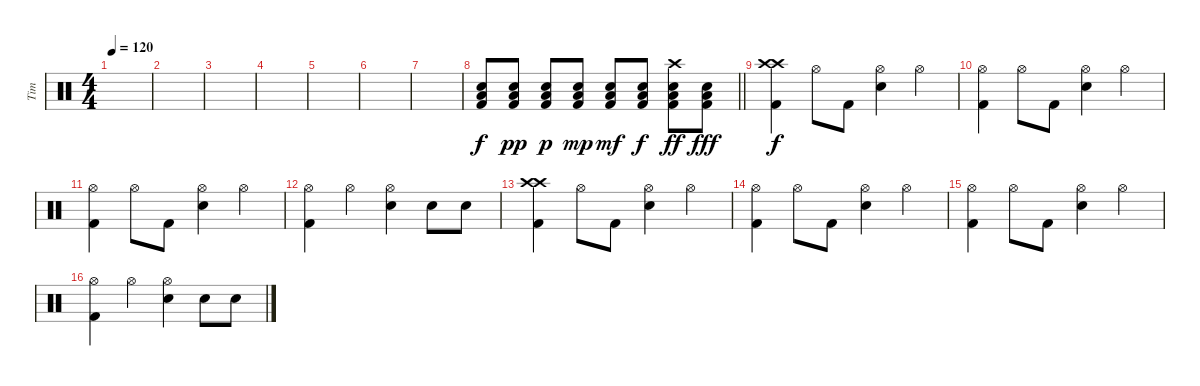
\track ("Tim" "Tim") {instrument percussion}
\staff {score}
\articulation defaults
\ts (4 4)
\tempo 120
\clef neutral
\ks c
|
|
|
|
|
|
|
\barLineRight lightlight
("Electric Snare (hit)" "Low Floor Tom (hit)" "Kick (hit) 2").8 ("Electric Snare (hit)" "Low Floor Tom (hit)" "Kick (hit) 2").8{dy pp} ("Electric Snare (hit)" "Low Floor Tom (hit)" "Kick (hit) 2").8{dy p} ("Electric Snare (hit)" "Low Floor Tom (hit)" "Kick (hit) 2").8{dy mp} ("Electric Snare (hit)" "Low Floor Tom (hit)" "Kick (hit) 2").8{dy mf} ("Electric Snare (hit)" "Low Floor Tom (hit)" "Kick (hit) 2").8{dy f} ("Crash high (hit)" "Electric Snare (hit)" "Low Floor Tom (hit)" "Kick (hit) 2").8{dy ff} ("Electric Snare (hit)" "Low Floor Tom (hit)" "Kick (hit) 2").8{dy fff} |
("Crash high (hit)" "Crash high (hit)" "Kick (hit) 2").4{dy f} "Hi-Hat (open)".8 "Kick (hit) 2".8 ("Hi-Hat (open)" "Snare (hit) 2").4 "Hi-Hat (open)".4 |
("Hi-Hat (open)" "Kick (hit) 2").4 "Hi-Hat (open)".8 "Kick (hit) 2".8 ("Hi-Hat (open)" "Snare (hit) 2").4 "Hi-Hat (open)".4 |
("Hi-Hat (open)" "Kick (hit) 2").4 "Hi-Hat (open)".8 "Kick (hit) 2".8 ("Hi-Hat (open)" "Snare (hit) 2").4 "Hi-Hat (open)".4 |
("Hi-Hat (open)" "Kick (hit) 2").4 "Hi-Hat (open)".4 ("Hi-Hat (open)" "Snare (hit) 2").4 "Snare (hit) 2".8 "Snare (hit) 2".8 |
("Crash high (hit)" "Crash high (hit)" "Kick (hit) 2").4 "Hi-Hat (open)".8 "Kick (hit) 2".8 ("Hi-Hat (open)" "Snare (hit) 2").4 "Hi-Hat (open)".4 |
("Hi-Hat (open)" "Kick (hit) 2").4 "Hi-Hat (open)".8 "Kick (hit) 2".8 ("Hi-Hat (open)" "Snare (hit) 2").4 "Hi-Hat (open)".4 |
("Hi-Hat (open)" "Kick (hit) 2").4 "Hi-Hat (open)".8 "Kick (hit) 2".8 ("Hi-Hat (open)" "Snare (hit) 2").4 "Hi-Hat (open)".4 |
("Hi-Hat (open)" "Kick (hit) 2").4 "Hi-Hat (open)".4 ("Hi-Hat (open)" "Snare (hit) 2").4 "Snare (hit) 2".8 "Snare (hit) 2".8
